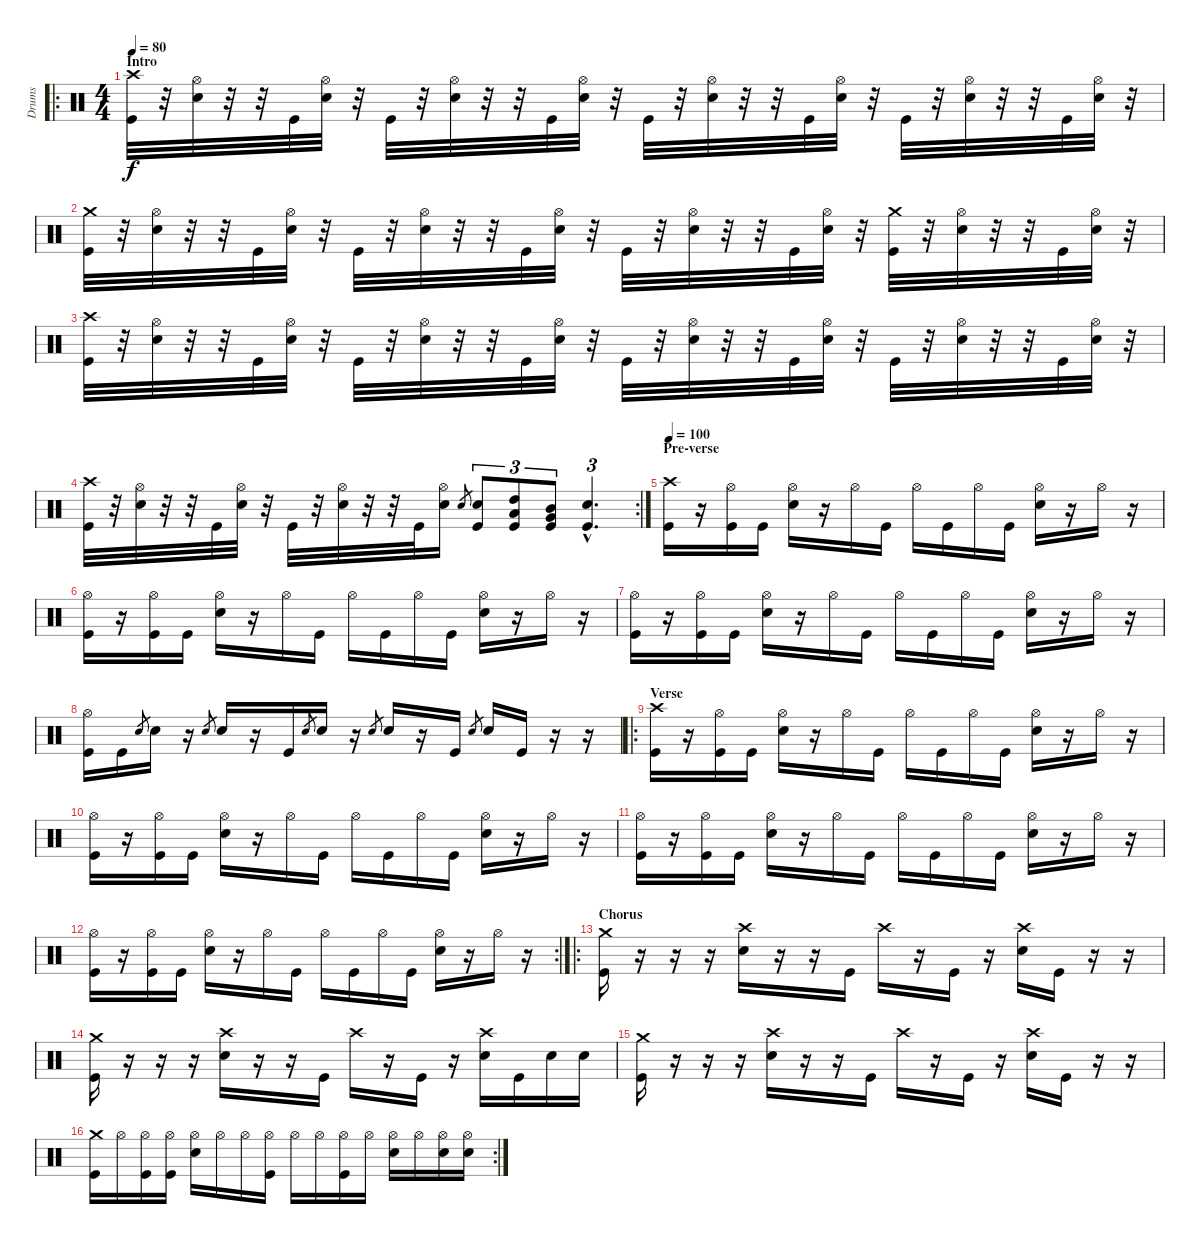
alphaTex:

\track ("Drums" "Drums") {instrument percussion}
\staff {score}
\articulation defaults
\ro
\ts (4 4)
\section ("" "Intro")
\tempo 80
\clef neutral
\ks c
("Crash high (hit)" "Kick (hit)").32{dy f} r.32 ("Hi-Hat (open)" "Electric Snare (hit)").32 r.32 r.32 "Kick (hit)".32 ("Hi-Hat (open)" "Electric Snare (hit)").32 r.32 "Kick (hit)".32 r.32 ("Hi-Hat (open)" "Electric Snare (hit)").32 r.32 r.32 "Kick (hit)".32 ("Hi-Hat (open)" "Electric Snare (hit)").32 r.32 "Kick (hit)".32 r.32 ("Hi-Hat (open)" "Electric Snare (hit)").32 r.32 r.32 "Kick (hit)".32 ("Hi-Hat (open)" "Electric Snare (hit)").32 r.32 "Kick (hit)".32 r.32 ("Hi-Hat (open)" "Electric Snare (hit)").32 r.32 r.32 "Kick (hit)".32 ("Hi-Hat (open)" "Electric Snare (hit)").32 r.32 |
("Crash medium (hit)" "Kick (hit)").32 r.32 ("Hi-Hat (open)" "Electric Snare (hit)").32 r.32 r.32 "Kick (hit)".32 ("Hi-Hat (open)" "Electric Snare (hit)").32 r.32 "Kick (hit)".32 r.32 ("Hi-Hat (open)" "Electric Snare (hit)").32 r.32 r.32 "Kick (hit)".32 ("Hi-Hat (open)" "Electric Snare (hit)").32 r.32 "Kick (hit)".32 r.32 ("Hi-Hat (open)" "Electric Snare (hit)").32 r.32 r.32 "Kick (hit)".32 ("Hi-Hat (open)" "Electric Snare (hit)").32 r.32 ("Crash medium (hit)" "Kick (hit)").32 r.32 ("Hi-Hat (open)" "Electric Snare (hit)").32 r.32 r.32 "Kick (hit)".32 ("Hi-Hat (open)" "Electric Snare (hit)").32 r.32 |
("Crash high (hit)" "Kick (hit)").32 r.32 ("Hi-Hat (open)" "Electric Snare (hit)").32 r.32 r.32 "Kick (hit)".32 ("Hi-Hat (open)" "Electric Snare (hit)").32 r.32 "Kick (hit)".32 r.32 ("Hi-Hat (open)" "Electric Snare (hit)").32 r.32 r.32 "Kick (hit)".32 ("Hi-Hat (open)" "Electric Snare (hit)").32 r.32 "Kick (hit)".32 r.32 ("Hi-Hat (open)" "Electric Snare (hit)").32 r.32 r.32 "Kick (hit)".32 ("Hi-Hat (open)" "Electric Snare (hit)").32 r.32 "Kick (hit)".32 r.32 ("Hi-Hat (open)" "Electric Snare (hit)").32 r.32 r.32 "Kick (hit)".32 ("Hi-Hat (open)" "Electric Snare (hit)").32 r.32 |
\rc 2
("Crash high (hit)" "Kick (hit)").32 r.32 ("Hi-Hat (open)" "Electric Snare (hit)").32 r.32 r.32 "Kick (hit)".32 ("Hi-Hat (open)" "Electric Snare (hit)").32 r.32 "Kick (hit)".32 r.32 ("Hi-Hat (open)" "Electric Snare (hit)").32 r.32 r.32 "Kick (hit)".32 ("Hi-Hat (open)" "Electric Snare (hit)").16 "Electric Snare (hit)".8{gr} ("Electric Snare (hit)" "Kick (hit)").8{tu (3 2)} ("High Tom (hit)" "Low Tom (hit)" "Kick (hit)").8{tu (3 2)} ("Mid Tom (hit)" "Very Low Tom (hit)" "Kick (hit)").8{tu (3 2)} ("Electric Snare (hit)"{hac} "Kick (hit)"{hac}).4{d tu (3 2)} |
\section ("" "Pre-verse")
\tempo 100
("Crash high (hit)" "Kick (hit)").16 r.16 ("Hi-Hat (open)" "Kick (hit)").16 "Kick (hit)".16 ("Hi-Hat (open)" "Electric Snare (hit)").16 r.16 "Hi-Hat (open)".16 "Kick (hit)".16 "Hi-Hat (open)".16 "Kick (hit)".16 "Hi-Hat (open)".16 "Kick (hit)".16 ("Hi-Hat (open)" "Electric Snare (hit)").16 r.16 "Hi-Hat (open)".16 r.16 |
("Hi-Hat (open)" "Kick (hit)").16 r.16 ("Hi-Hat (open)" "Kick (hit)").16 "Kick (hit)".16 ("Hi-Hat (open)" "Electric Snare (hit)").16 r.16 "Hi-Hat (open)".16 "Kick (hit)".16 "Hi-Hat (open)".16 "Kick (hit)".16 "Hi-Hat (open)".16 "Kick (hit)".16 ("Hi-Hat (open)" "Electric Snare (hit)").16 r.16 "Hi-Hat (open)".16 r.16 |
("Hi-Hat (open)" "Kick (hit)").16 r.16 ("Hi-Hat (open)" "Kick (hit)").16 "Kick (hit)".16 ("Hi-Hat (open)" "Electric Snare (hit)").16 r.16 "Hi-Hat (open)".16 "Kick (hit)".16 "Hi-Hat (open)".16 "Kick (hit)".16 "Hi-Hat (open)".16 "Kick (hit)".16 ("Hi-Hat (open)" "Electric Snare (hit)").16 r.16 "Hi-Hat (open)".16 r.16 |
("Hi-Hat (open)" "Kick (hit)").16 "Kick (hit)".16 "Electric Snare (hit)".8{gr} "Electric Snare (hit)".16 r.16 "Electric Snare (hit)".8{gr} "Electric Snare (hit)".16 r.16 "Kick (hit)".16 "Electric Snare (hit)".8{gr} "Electric Snare (hit)".16 r.16 "Electric Snare (hit)".8{gr} "Electric Snare (hit)".16 r.16 "Kick (hit)".16 "Electric Snare (hit)".8{gr} "Electric Snare (hit)".16 "Kick (hit)".16 r.16 r.16 |
\ro
\section ("" "Verse")
("Crash high (hit)" "Kick (hit)").16 r.16 ("Hi-Hat (open)" "Kick (hit)").16 "Kick (hit)".16 ("Hi-Hat (open)" "Electric Snare (hit)").16 r.16 "Hi-Hat (open)".16 "Kick (hit)".16 "Hi-Hat (open)".16 "Kick (hit)".16 "Hi-Hat (open)".16 "Kick (hit)".16 ("Hi-Hat (open)" "Electric Snare (hit)").16 r.16 "Hi-Hat (open)".16 r.16 |
("Hi-Hat (open)" "Kick (hit)").16 r.16 ("Hi-Hat (open)" "Kick (hit)").16 "Kick (hit)".16 ("Hi-Hat (open)" "Electric Snare (hit)").16 r.16 "Hi-Hat (open)".16 "Kick (hit)".16 "Hi-Hat (open)".16 "Kick (hit)".16 "Hi-Hat (open)".16 "Kick (hit)".16 ("Hi-Hat (open)" "Electric Snare (hit)").16 r.16 "Hi-Hat (open)".16 r.16 |
("Hi-Hat (open)" "Kick (hit)").16 r.16 ("Hi-Hat (open)" "Kick (hit)").16 "Kick (hit)".16 ("Hi-Hat (open)" "Electric Snare (hit)").16 r.16 "Hi-Hat (open)".16 "Kick (hit)".16 "Hi-Hat (open)".16 "Kick (hit)".16 "Hi-Hat (open)".16 "Kick (hit)".16 ("Hi-Hat (open)" "Electric Snare (hit)").16 r.16 "Hi-Hat (open)".16 r.16 |
\rc 2
("Hi-Hat (open)" "Kick (hit)").16 r.16 ("Hi-Hat (open)" "Kick (hit)").16 "Kick (hit)".16 ("Hi-Hat (open)" "Electric Snare (hit)").16 r.16 "Hi-Hat (open)".16 "Kick (hit)".16 "Hi-Hat (open)".16 "Kick (hit)".16 "Hi-Hat (open)".16 "Kick (hit)".16 ("Hi-Hat (open)" "Electric Snare (hit)").16 r.16 "Hi-Hat (open)".16 r.16 |
\ro
\section ("" "Chorus")
("Crash medium (hit)" "Kick (hit)").16 r.16 r.16 r.16 ("Crash high (hit)" "Electric Snare (hit)").16 r.16 r.16 "Kick (hit)".16 "Crash high (hit)".16 r.16 "Kick (hit)".16 r.16 ("Crash high (hit)" "Electric Snare (hit)").16 "Kick (hit)".16 r.16 r.16 |
("Crash medium (hit)" "Kick (hit)").16 r.16 r.16 r.16 ("Crash high (hit)" "Electric Snare (hit)").16 r.16 r.16 "Kick (hit)".16 "Crash high (hit)".16 r.16 "Kick (hit)".16 r.16 ("Crash high (hit)" "Electric Snare (hit)").16 "Kick (hit)".16 "Electric Snare (hit)".16 "Electric Snare (hit)".16 |
("Crash medium (hit)" "Kick (hit)").16 r.16 r.16 r.16 ("Crash high (hit)" "Electric Snare (hit)").16 r.16 r.16 "Kick (hit)".16 "Crash high (hit)".16 r.16 "Kick (hit)".16 r.16 ("Crash high (hit)" "Electric Snare (hit)").16 "Kick (hit)".16 r.16 r.16 |
\rc 2
("Crash medium (hit)" "Kick (hit)").16 "Hi-Hat (open)".16 ("Hi-Hat (open)" "Kick (hit)").16 ("Hi-Hat (open)" "Kick (hit)").16 ("Hi-Hat (open)" "Electric Snare (hit)").16 "Hi-Hat (open)".16 "Hi-Hat (open)".16 ("Hi-Hat (open)" "Kick (hit)").16 "Hi-Hat (open)".16 "Hi-Hat (open)".16 ("Hi-Hat (open)" "Kick (hit)").16 "Hi-Hat (open)".16 ("Hi-Hat (open)" "Electric Snare (hit)").16 "Hi-Hat (open)".16 ("Hi-Hat (open)" "Electric Snare (hit)").16 ("Hi-Hat (open)" "Electric Snare (hit)").16
